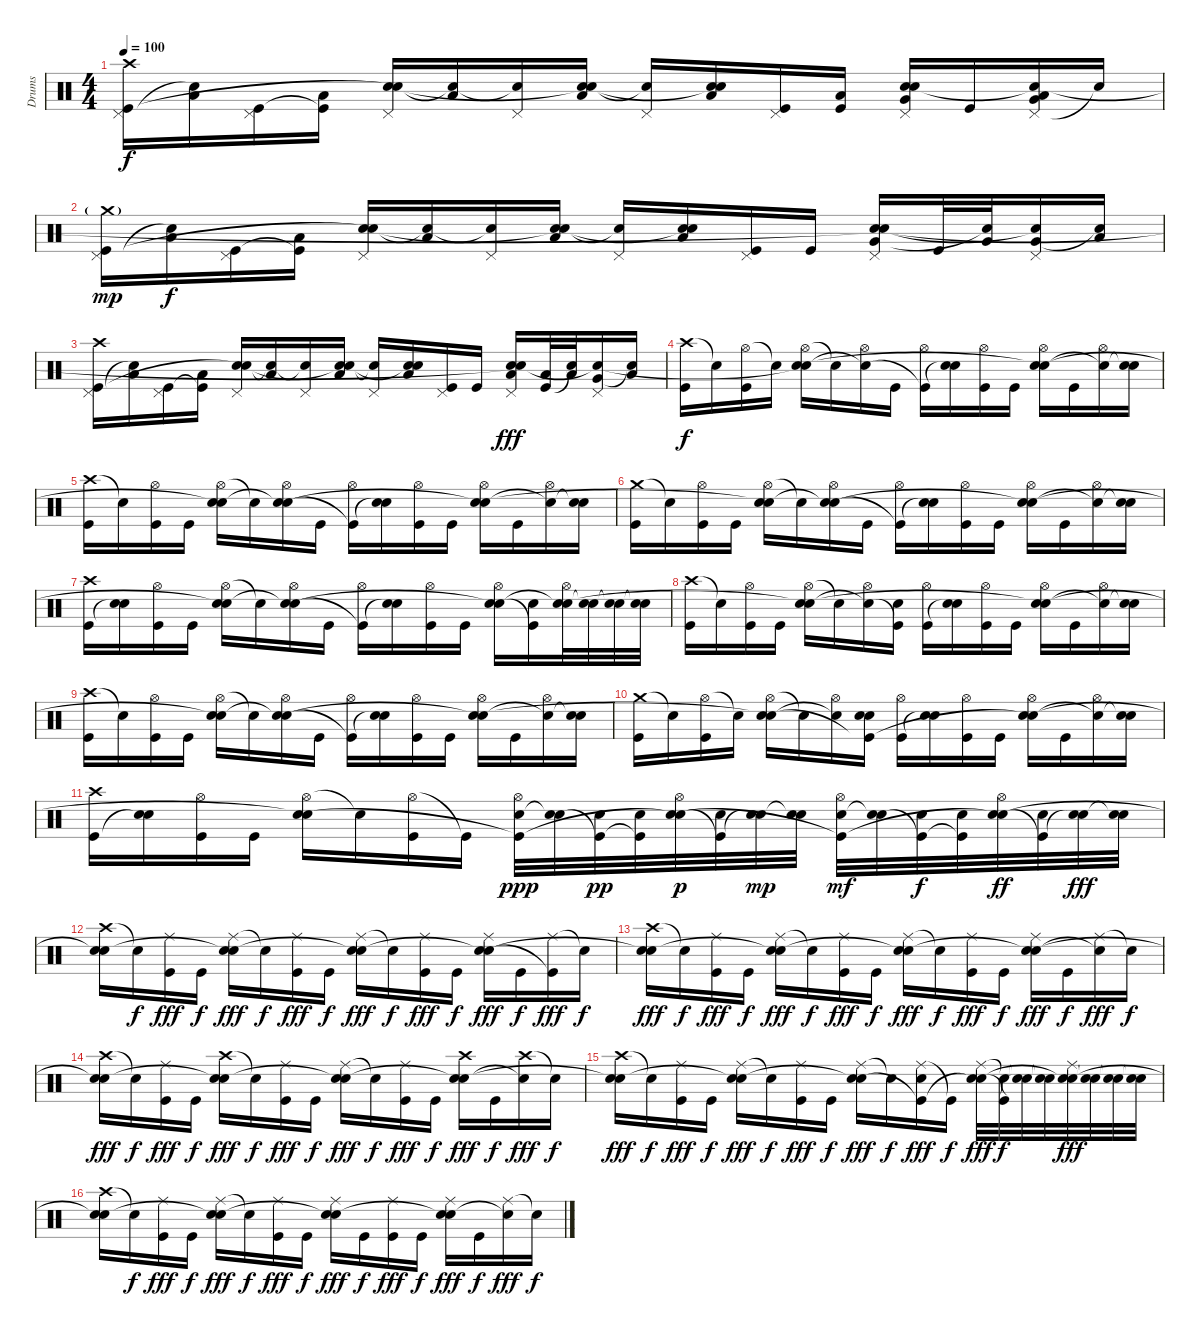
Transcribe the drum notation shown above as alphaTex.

\track ("Drums" "Drums") {instrument percussion}
\staff {score}
\articulation defaults
\ts (4 4)
\tempo 100
\clef neutral
\ks c
("Crash high (hit)" "Pedal Hi-Hat (hit)" "Kick (hit)").16{dy f} ("Low Floor Tom (hit)" "Snare (hit)"{t}).16 ("Pedal Hi-Hat (hit)" "Kick (hit)").16 ("Low Floor Tom (hit)" "Kick (hit)"{t}).16 ("Pedal Hi-Hat (hit)" "Electric Snare (hit)" "Snare (hit)"{t}).16 ("Low Floor Tom (hit)" "Snare (hit)"{t}).16 ("Pedal Hi-Hat (hit)" "Snare (hit)"{t}).16 ("Low Floor Tom (hit)" "Electric Snare (hit)" "Snare (hit)"{t}).16 ("Pedal Hi-Hat (hit)" "Snare (hit)"{t}).16 ("Low Floor Tom (hit)" "Electric Snare (hit)" "Snare (hit)"{t}).16 ("Pedal Hi-Hat (hit)" "Kick (hit)").16 ("Low Floor Tom (hit)" "Kick (hit)").16 ("Pedal Hi-Hat (hit)" "Very Low Tom (hit)" "Electric Snare (hit)" "Snare (hit)"{t}).16 "Kick (hit)".16 ("Pedal Hi-Hat (hit)" "Very Low Tom (hit)" "Low Floor Tom (hit)" "Snare (hit)"{t}).16 "Snare (hit)"{t}.16 |
("Crash medium (hit)"{g} "Pedal Hi-Hat (hit)" "Kick (hit)").16{dy mp} ("Low Floor Tom (hit)" "Snare (hit)"{t}).16{dy f} ("Pedal Hi-Hat (hit)" "Kick (hit)").16 ("Low Floor Tom (hit)" "Kick (hit)"{t}).16 ("Pedal Hi-Hat (hit)" "Electric Snare (hit)" "Snare (hit)"{t}).16 ("Low Floor Tom (hit)" "Snare (hit)"{t}).16 ("Pedal Hi-Hat (hit)" "Snare (hit)"{t}).16 ("Low Floor Tom (hit)" "Electric Snare (hit)" "Snare (hit)"{t}).16 ("Pedal Hi-Hat (hit)" "Snare (hit)"{t}).16 ("Low Floor Tom (hit)" "Electric Snare (hit)" "Snare (hit)"{t}).16 ("Pedal Hi-Hat (hit)" "Kick (hit)").16 "Kick (hit)".16 ("Pedal Hi-Hat (hit)" "Very Low Tom (hit)" "Electric Snare (hit)" "Snare (hit)"{t}).16 "Kick (hit)".32 ("Very Low Tom (hit)" "Snare (hit)"{t}).32 ("Pedal Hi-Hat (hit)" "Very Low Tom (hit)" "Snare (hit)"{t}).16 ("Low Floor Tom (hit)" "Snare (hit)"{t}).16 |
("Crash high (hit)" "Pedal Hi-Hat (hit)" "Kick (hit)").16 ("Low Floor Tom (hit)" "Snare (hit)"{t}).16 ("Pedal Hi-Hat (hit)" "Kick (hit)").16 ("Low Floor Tom (hit)" "Kick (hit)"{t}).16 ("Pedal Hi-Hat (hit)" "Electric Snare (hit)" "Snare (hit)"{t}).16 ("Low Floor Tom (hit)" "Snare (hit)"{t}).16 ("Pedal Hi-Hat (hit)" "Snare (hit)"{t}).16 ("Low Floor Tom (hit)" "Electric Snare (hit)" "Snare (hit)"{t}).16 ("Pedal Hi-Hat (hit)" "Snare (hit)"{t}).16 ("Low Floor Tom (hit)" "Electric Snare (hit)" "Snare (hit)"{t}).16 ("Pedal Hi-Hat (hit)" "Kick (hit)").16 "Kick (hit)".16 ("Pedal Hi-Hat (hit)" "Low Tom (hit)" "Electric Snare (hit)" "Snare (hit)"{t}).16{dy fff} ("Low Tom (hit)" "Kick (hit)").32 ("Low Tom (hit)" "Snare (hit)"{t}).32 ("Pedal Hi-Hat (hit)" "Very Low Tom (hit)" "Snare (hit)"{t}).16 ("Low Floor Tom (hit)" "Snare (hit)"{t}).16 |
("Crash high (hit)" "Kick (hit)").16{dy f} "Snare (hit)"{t}.16 ("Hi-Hat (open)" "Kick (hit)").16 "Snare (hit)"{t}.16 ("Hi-Hat (open)" "Electric Snare (hit)" "Snare (hit)"{t}).16 "Snare (hit)"{t}.16 ("Hi-Hat (open)" "Snare (hit)"{t}).16 "Kick (hit)".16 ("Hi-Hat (open)" "Kick (hit)"{t}).16 ("Electric Snare (hit)" "Snare (hit)"{t}).16 ("Hi-Hat (open)" "Kick (hit)").16 "Kick (hit)".16 ("Hi-Hat (open)" "Electric Snare (hit)" "Snare (hit)"{t}).16 "Kick (hit)".16 ("Hi-Hat (open)" "Snare (hit)"{t}).16 ("Electric Snare (hit)" "Snare (hit)"{t}).16 |
("Crash high (hit)" "Kick (hit)").16 "Snare (hit)"{t}.16 ("Hi-Hat (open)" "Kick (hit)").16 "Kick (hit)".16 ("Hi-Hat (open)" "Electric Snare (hit)" "Snare (hit)"{t}).16 "Snare (hit)"{t}.16 ("Hi-Hat (open)" "Electric Snare (hit)" "Snare (hit)"{t}).16 "Kick (hit)".16 ("Hi-Hat (open)" "Kick (hit)"{t}).16 ("Electric Snare (hit)" "Snare (hit)"{t}).16 ("Hi-Hat (open)" "Kick (hit)").16 "Kick (hit)".16 ("Hi-Hat (open)" "Electric Snare (hit)" "Snare (hit)"{t}).16 "Kick (hit)".16 ("Hi-Hat (open)" "Snare (hit)"{t}).16 ("Electric Snare (hit)" "Snare (hit)"{t}).16 |
("Crash medium (hit)" "Kick (hit)").16 "Snare (hit)"{t}.16 ("Hi-Hat (open)" "Kick (hit)").16 "Kick (hit)".16 ("Hi-Hat (open)" "Electric Snare (hit)" "Snare (hit)"{t}).16 "Snare (hit)"{t}.16 ("Hi-Hat (open)" "Electric Snare (hit)" "Snare (hit)"{t}).16 "Kick (hit)".16 ("Hi-Hat (open)" "Kick (hit)"{t}).16 ("Electric Snare (hit)" "Snare (hit)"{t}).16 ("Hi-Hat (open)" "Kick (hit)").16 "Kick (hit)".16 ("Hi-Hat (open)" "Electric Snare (hit)" "Snare (hit)"{t}).16 "Kick (hit)".16 ("Hi-Hat (open)" "Snare (hit)"{t}).16 ("Electric Snare (hit)" "Snare (hit)"{t}).16 |
("Crash high (hit)" "Kick (hit)").16 ("Electric Snare (hit)" "Snare (hit)"{t}).16 ("Hi-Hat (open)" "Kick (hit)").16 "Kick (hit)".16 ("Hi-Hat (open)" "Electric Snare (hit)" "Snare (hit)"{t}).16 "Snare (hit)"{t}.16 ("Hi-Hat (open)" "Electric Snare (hit)" "Snare (hit)"{t}).16 "Kick (hit)".16 ("Hi-Hat (open)" "Kick (hit)"{t}).16 ("Electric Snare (hit)" "Snare (hit)"{t}).16 ("Hi-Hat (open)" "Kick (hit)").16 "Kick (hit)".16 ("Hi-Hat (open)" "Electric Snare (hit)" "Snare (hit)"{t}).16 ("Electric Snare (hit)" "Kick (hit)"{t}).16 ("Hi-Hat (open)" "Electric Snare (hit)" "Snare (hit)"{t}).32 ("Electric Snare (hit)" "Snare (hit)"{t}).32 ("Electric Snare (hit)" "Snare (hit)"{t}).32 ("Electric Snare (hit)" "Snare (hit)"{t}).32 |
("Crash high (hit)" "Kick (hit)").16 "Snare (hit)"{t}.16 ("Hi-Hat (open)" "Kick (hit)").16 "Kick (hit)".16 ("Hi-Hat (open)" "Electric Snare (hit)" "Snare (hit)"{t}).16 "Snare (hit)"{t}.16 ("Hi-Hat (open)" "Snare (hit)"{t}).16 ("Electric Snare (hit)" "Kick (hit)"{t}).16 ("Hi-Hat (open)" "Kick (hit)").16 ("Electric Snare (hit)" "Snare (hit)"{t}).16 ("Hi-Hat (open)" "Kick (hit)").16 "Kick (hit)".16 ("Hi-Hat (open)" "Electric Snare (hit)" "Snare (hit)"{t}).16 "Kick (hit)".16 ("Hi-Hat (open)" "Snare (hit)"{t}).16 ("Electric Snare (hit)" "Snare (hit)"{t}).16 |
("Crash high (hit)" "Kick (hit)").16 "Snare (hit)"{t}.16 ("Hi-Hat (open)" "Kick (hit)").16 "Kick (hit)".16 ("Hi-Hat (open)" "Electric Snare (hit)" "Snare (hit)"{t}).16 "Snare (hit)"{t}.16 ("Hi-Hat (open)" "Electric Snare (hit)" "Snare (hit)"{t}).16 "Kick (hit)".16 ("Hi-Hat (open)" "Kick (hit)"{t}).16 ("Electric Snare (hit)" "Snare (hit)"{t}).16 ("Hi-Hat (open)" "Kick (hit)").16 "Kick (hit)".16 ("Hi-Hat (open)" "Electric Snare (hit)" "Snare (hit)"{t}).16 "Kick (hit)".16 ("Hi-Hat (open)" "Snare (hit)"{t}).16 ("Electric Snare (hit)" "Snare (hit)"{t}).16 |
("Crash medium (hit)" "Kick (hit)").16 "Snare (hit)"{t}.16 ("Hi-Hat (open)" "Kick (hit)").16 "Snare (hit)"{t}.16 ("Hi-Hat (open)" "Electric Snare (hit)" "Snare (hit)"{t}).16 "Snare (hit)"{t}.16 ("Hi-Hat (open)" "Snare (hit)"{t}).16 ("Electric Snare (hit)" "Electric Snare (hit)" "Kick (hit)"{t}).16{bd 480} ("Hi-Hat (open)" "Kick (hit)").16 ("Electric Snare (hit)" "Snare (hit)"{t}).16 ("Hi-Hat (open)" "Kick (hit)").16 "Kick (hit)".16 ("Hi-Hat (open)" "Electric Snare (hit)" "Snare (hit)"{t}).16 "Kick (hit)".16 ("Hi-Hat (open)" "Snare (hit)"{t}).16 ("Electric Snare (hit)" "Snare (hit)"{t}).16 |
("Crash high (hit)" "Kick (hit)").16 ("Electric Snare (hit)" "Snare (hit)"{t}).16 ("Hi-Hat (open)" "Kick (hit)").16 "Kick (hit)".16 ("Hi-Hat (open)" "Electric Snare (hit)" "Snare (hit)"{t}).16 "Snare (hit)"{t}.16 ("Hi-Hat (open)" "Kick (hit)").16 "Kick (hit)"{t}.16 ("Hi-Hat (open)" "Electric Snare (hit)" "Kick (hit)"{t}).32{dy ppp} ("Electric Snare (hit)" "Snare (hit)"{t}).32 ("Electric Snare (hit)" "Kick (hit)"{t}).32{dy pp} ("Electric Snare (hit)" "Kick (hit)"{t}).32 ("Hi-Hat (open)" "Electric Snare (hit)" "Snare (hit)"{t}).32{dy p} ("Electric Snare (hit)" "Kick (hit)"{t}).32 ("Electric Snare (hit)" "Snare (hit)"{t}).32{dy mp} ("Electric Snare (hit)" "Snare (hit)"{t}).32 ("Hi-Hat (open)" "Electric Snare (hit)" "Kick (hit)"{t}).32{dy mf} ("Electric Snare (hit)" "Snare (hit)"{t}).32 ("Electric Snare (hit)" "Kick (hit)"{t}).32{dy f} ("Electric Snare (hit)" "Kick (hit)"{t}).32 ("Hi-Hat (open)" "Electric Snare (hit)" "Snare (hit)"{t}).32{dy ff} ("Electric Snare (hit)" "Kick (hit)"{t}).32 ("Electric Snare (hit)" "Snare (hit)"{t}).32{dy fff} ("Electric Snare (hit)" "Snare (hit)"{t}).32 |
("Crash high (hit)" "Electric Snare (hit)" "Snare (hit)"{t}).16 "Snare (hit)"{t}.16{dy f} ("Ride (middle)" "Kick (hit)").16{dy fff} "Kick (hit)".16{dy f} ("Ride (middle)" "Electric Snare (hit)" "Snare (hit)"{t}).16{dy fff} "Snare (hit)"{t}.16{dy f} ("Ride (middle)" "Kick (hit)").16{dy fff} "Kick (hit)".16{dy f} ("Ride (middle)" "Electric Snare (hit)" "Snare (hit)"{t}).16{dy fff} "Snare (hit)"{t}.16{dy f} ("Ride (middle)" "Kick (hit)").16{dy fff} "Kick (hit)".16{dy f} ("Ride (middle)" "Electric Snare (hit)" "Snare (hit)"{t}).16{dy fff} "Kick (hit)".16{dy f} ("Ride (middle)" "Kick (hit)"{t}).16{dy fff} "Snare (hit)"{t}.16{dy f} |
("Crash high (hit)" "Electric Snare (hit)" "Snare (hit)"{t}).16{dy fff} "Snare (hit)"{t}.16{dy f} ("Ride (middle)" "Kick (hit)").16{dy fff} "Kick (hit)".16{dy f} ("Ride (middle)" "Electric Snare (hit)" "Snare (hit)"{t}).16{dy fff} "Snare (hit)"{t}.16{dy f} ("Ride (middle)" "Kick (hit)").16{dy fff} "Kick (hit)".16{dy f} ("Ride (middle)" "Electric Snare (hit)" "Snare (hit)"{t}).16{dy fff} "Snare (hit)"{t}.16{dy f} ("Ride (middle)" "Kick (hit)").16{dy fff} "Kick (hit)".16{dy f} ("Ride (middle)" "Electric Snare (hit)" "Snare (hit)"{t}).16{dy fff} "Kick (hit)".16{dy f} ("Ride (middle)" "Snare (hit)"{t}).16{dy fff} "Snare (hit)"{t}.16{dy f} |
("Crash high (hit)" "Electric Snare (hit)" "Snare (hit)"{t}).16{dy fff} "Snare (hit)"{t}.16{dy f} ("Ride (middle)" "Kick (hit)").16{dy fff} "Kick (hit)".16{dy f} ("Crash high (hit)" "Electric Snare (hit)" "Snare (hit)"{t}).16{dy fff} "Snare (hit)"{t}.16{dy f} ("Ride (middle)" "Kick (hit)").16{dy fff} "Kick (hit)".16{dy f} ("Ride (middle)" "Electric Snare (hit)" "Snare (hit)"{t}).16{dy fff} "Snare (hit)"{t}.16{dy f} ("Ride (middle)" "Kick (hit)").16{dy fff} "Kick (hit)".16{dy f} ("Crash high (hit)" "Electric Snare (hit)" "Snare (hit)"{t}).16{dy fff} "Kick (hit)".16{dy f} ("Crash high (hit)" "Snare (hit)"{t}).16{dy fff} "Snare (hit)"{t}.16{dy f} |
("Crash high (hit)" "Electric Snare (hit)" "Snare (hit)"{t}).16{dy fff} "Snare (hit)"{t}.16{dy f} ("Ride (middle)" "Kick (hit)").16{dy fff} "Kick (hit)".16{dy f} ("Ride (middle)" "Electric Snare (hit)" "Snare (hit)"{t}).16{dy fff} "Snare (hit)"{t}.16{dy f} ("Ride (middle)" "Kick (hit)").16{dy fff} "Kick (hit)".16{dy f} ("Ride (middle)" "Electric Snare (hit)" "Snare (hit)"{t}).16{dy fff} "Snare (hit)"{t}.16{dy f} ("Ride (middle)" "Electric Snare (hit)" "Kick (hit)"{t}).16{dy fff} "Kick (hit)"{t}.16{dy f} ("Ride (middle)" "Electric Snare (hit)" "Snare (hit)"{t}).32{dy fff} ("Electric Snare (hit)"{t} "Kick (hit)"{t}).32{dy f} ("Electric Snare (hit)"{t} "Snare (hit)"{t}).32 ("Electric Snare (hit)"{t} "Snare (hit)"{t}).32 ("Ride (middle)" "Electric Snare (hit)" "Snare (hit)"{t}).32{dy fff} ("Electric Snare (hit)" "Snare (hit)"{t}).32 ("Electric Snare (hit)" "Snare (hit)"{t}).32 ("Electric Snare (hit)" "Snare (hit)"{t}).32 |
("Crash high (hit)" "Electric Snare (hit)" "Snare (hit)"{t}).16 "Snare (hit)"{t}.16{dy f} ("Ride (middle)" "Kick (hit)").16{dy fff} "Kick (hit)".16{dy f} ("Ride (middle)" "Electric Snare (hit)" "Snare (hit)"{t}).16{dy fff} "Snare (hit)"{t}.16{dy f} ("Ride (middle)" "Kick (hit)").16{dy fff} "Kick (hit)".16{dy f} ("Ride (middle)" "Electric Snare (hit)" "Snare (hit)"{t}).16{dy fff} "Kick (hit)".16{dy f} ("Ride (middle)" "Kick (hit)").16{dy fff} "Kick (hit)".16{dy f} ("Ride (middle)" "Electric Snare (hit)" "Snare (hit)"{t}).16{dy fff} "Kick (hit)".16{dy f} ("Ride (middle)" "Snare (hit)"{t}).16{dy fff} "Snare (hit)"{t}.16{dy f}
